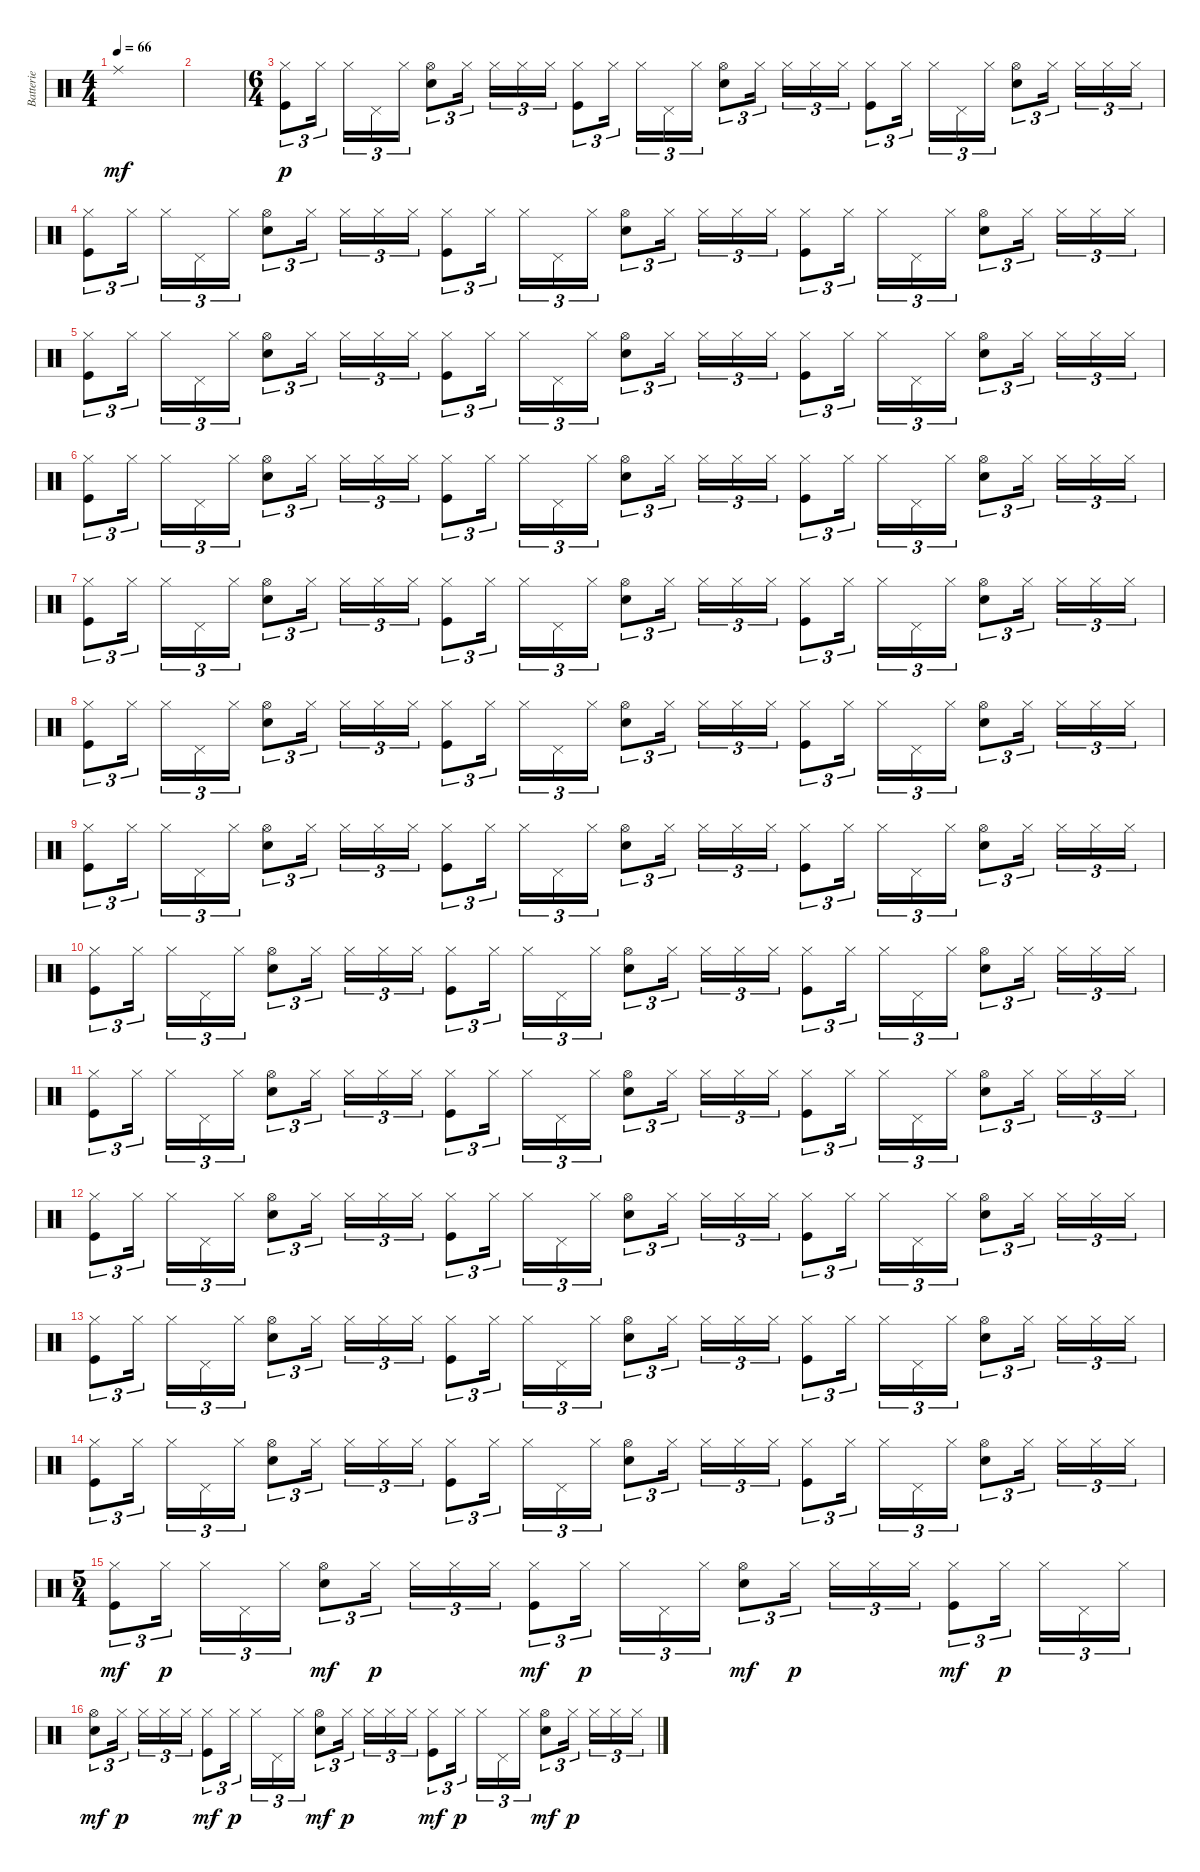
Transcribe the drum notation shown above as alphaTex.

\track ("Batterie" "Batterie") {instrument percussion}
\staff {score}
\articulation defaults
\ts (4 4)
\tempo 66
\clef neutral
\ks c "Ride (middle)".1{dy mf}
|
|
\ts (6 4)
("Hi-Hat (closed)" "Kick (hit)").8{tu (3 2) dy p} "Hi-Hat (closed)".16{tu (3 2)} "Hi-Hat (closed)".16{tu (3 2)} "Pedal Hi-Hat (hit)".16{tu (3 2)} "Hi-Hat (closed)".16{tu (3 2)} ("Hi-Hat (open)" "Snare (hit) 2").8{tu (3 2)} "Hi-Hat (closed)".16{tu (3 2)} "Hi-Hat (closed)".16{tu (3 2)} "Hi-Hat (closed)".16{tu (3 2)} "Hi-Hat (closed)".16{tu (3 2)} ("Hi-Hat (closed)" "Kick (hit)").8{tu (3 2)} "Hi-Hat (closed)".16{tu (3 2)} "Hi-Hat (closed)".16{tu (3 2)} "Pedal Hi-Hat (hit)".16{tu (3 2)} "Hi-Hat (closed)".16{tu (3 2)} ("Hi-Hat (open)" "Snare (hit) 2").8{tu (3 2)} "Hi-Hat (closed)".16{tu (3 2)} "Hi-Hat (closed)".16{tu (3 2)} "Hi-Hat (closed)".16{tu (3 2)} "Hi-Hat (closed)".16{tu (3 2)} ("Hi-Hat (closed)" "Kick (hit)").8{tu (3 2)} "Hi-Hat (closed)".16{tu (3 2)} "Hi-Hat (closed)".16{tu (3 2)} "Pedal Hi-Hat (hit)".16{tu (3 2)} "Hi-Hat (closed)".16{tu (3 2)} ("Hi-Hat (open)" "Snare (hit) 2").8{tu (3 2)} "Hi-Hat (closed)".16{tu (3 2)} "Hi-Hat (closed)".16{tu (3 2)} "Hi-Hat (closed)".16{tu (3 2)} "Hi-Hat (closed)".16{tu (3 2)} |
("Hi-Hat (closed)" "Kick (hit)").8{tu (3 2)} "Hi-Hat (closed)".16{tu (3 2)} "Hi-Hat (closed)".16{tu (3 2)} "Pedal Hi-Hat (hit)".16{tu (3 2)} "Hi-Hat (closed)".16{tu (3 2)} ("Hi-Hat (open)" "Snare (hit) 2").8{tu (3 2)} "Hi-Hat (closed)".16{tu (3 2)} "Hi-Hat (closed)".16{tu (3 2)} "Hi-Hat (closed)".16{tu (3 2)} "Hi-Hat (closed)".16{tu (3 2)} ("Hi-Hat (closed)" "Kick (hit)").8{tu (3 2)} "Hi-Hat (closed)".16{tu (3 2)} "Hi-Hat (closed)".16{tu (3 2)} "Pedal Hi-Hat (hit)".16{tu (3 2)} "Hi-Hat (closed)".16{tu (3 2)} ("Hi-Hat (open)" "Snare (hit) 2").8{tu (3 2)} "Hi-Hat (closed)".16{tu (3 2)} "Hi-Hat (closed)".16{tu (3 2)} "Hi-Hat (closed)".16{tu (3 2)} "Hi-Hat (closed)".16{tu (3 2)} ("Hi-Hat (closed)" "Kick (hit)").8{tu (3 2)} "Hi-Hat (closed)".16{tu (3 2)} "Hi-Hat (closed)".16{tu (3 2)} "Pedal Hi-Hat (hit)".16{tu (3 2)} "Hi-Hat (closed)".16{tu (3 2)} ("Hi-Hat (open)" "Snare (hit) 2").8{tu (3 2)} "Hi-Hat (closed)".16{tu (3 2)} "Hi-Hat (closed)".16{tu (3 2)} "Hi-Hat (closed)".16{tu (3 2)} "Hi-Hat (closed)".16{tu (3 2)} |
("Hi-Hat (closed)" "Kick (hit)").8{tu (3 2)} "Hi-Hat (closed)".16{tu (3 2)} "Hi-Hat (closed)".16{tu (3 2)} "Pedal Hi-Hat (hit)".16{tu (3 2)} "Hi-Hat (closed)".16{tu (3 2)} ("Hi-Hat (open)" "Snare (hit) 2").8{tu (3 2)} "Hi-Hat (closed)".16{tu (3 2)} "Hi-Hat (closed)".16{tu (3 2)} "Hi-Hat (closed)".16{tu (3 2)} "Hi-Hat (closed)".16{tu (3 2)} ("Hi-Hat (closed)" "Kick (hit)").8{tu (3 2)} "Hi-Hat (closed)".16{tu (3 2)} "Hi-Hat (closed)".16{tu (3 2)} "Pedal Hi-Hat (hit)".16{tu (3 2)} "Hi-Hat (closed)".16{tu (3 2)} ("Hi-Hat (open)" "Snare (hit) 2").8{tu (3 2)} "Hi-Hat (closed)".16{tu (3 2)} "Hi-Hat (closed)".16{tu (3 2)} "Hi-Hat (closed)".16{tu (3 2)} "Hi-Hat (closed)".16{tu (3 2)} ("Hi-Hat (closed)" "Kick (hit)").8{tu (3 2)} "Hi-Hat (closed)".16{tu (3 2)} "Hi-Hat (closed)".16{tu (3 2)} "Pedal Hi-Hat (hit)".16{tu (3 2)} "Hi-Hat (closed)".16{tu (3 2)} ("Hi-Hat (open)" "Snare (hit) 2").8{tu (3 2)} "Hi-Hat (closed)".16{tu (3 2)} "Hi-Hat (closed)".16{tu (3 2)} "Hi-Hat (closed)".16{tu (3 2)} "Hi-Hat (closed)".16{tu (3 2)} |
("Hi-Hat (closed)" "Kick (hit)").8{tu (3 2)} "Hi-Hat (closed)".16{tu (3 2)} "Hi-Hat (closed)".16{tu (3 2)} "Pedal Hi-Hat (hit)".16{tu (3 2)} "Hi-Hat (closed)".16{tu (3 2)} ("Hi-Hat (open)" "Snare (hit) 2").8{tu (3 2)} "Hi-Hat (closed)".16{tu (3 2)} "Hi-Hat (closed)".16{tu (3 2)} "Hi-Hat (closed)".16{tu (3 2)} "Hi-Hat (closed)".16{tu (3 2)} ("Hi-Hat (closed)" "Kick (hit)").8{tu (3 2)} "Hi-Hat (closed)".16{tu (3 2)} "Hi-Hat (closed)".16{tu (3 2)} "Pedal Hi-Hat (hit)".16{tu (3 2)} "Hi-Hat (closed)".16{tu (3 2)} ("Hi-Hat (open)" "Snare (hit) 2").8{tu (3 2)} "Hi-Hat (closed)".16{tu (3 2)} "Hi-Hat (closed)".16{tu (3 2)} "Hi-Hat (closed)".16{tu (3 2)} "Hi-Hat (closed)".16{tu (3 2)} ("Hi-Hat (closed)" "Kick (hit)").8{tu (3 2)} "Hi-Hat (closed)".16{tu (3 2)} "Hi-Hat (closed)".16{tu (3 2)} "Pedal Hi-Hat (hit)".16{tu (3 2)} "Hi-Hat (closed)".16{tu (3 2)} ("Hi-Hat (open)" "Snare (hit) 2").8{tu (3 2)} "Hi-Hat (closed)".16{tu (3 2)} "Hi-Hat (closed)".16{tu (3 2)} "Hi-Hat (closed)".16{tu (3 2)} "Hi-Hat (closed)".16{tu (3 2)} |
("Hi-Hat (closed)" "Kick (hit)").8{tu (3 2)} "Hi-Hat (closed)".16{tu (3 2)} "Hi-Hat (closed)".16{tu (3 2)} "Pedal Hi-Hat (hit)".16{tu (3 2)} "Hi-Hat (closed)".16{tu (3 2)} ("Hi-Hat (open)" "Snare (hit) 2").8{tu (3 2)} "Hi-Hat (closed)".16{tu (3 2)} "Hi-Hat (closed)".16{tu (3 2)} "Hi-Hat (closed)".16{tu (3 2)} "Hi-Hat (closed)".16{tu (3 2)} ("Hi-Hat (closed)" "Kick (hit)").8{tu (3 2)} "Hi-Hat (closed)".16{tu (3 2)} "Hi-Hat (closed)".16{tu (3 2)} "Pedal Hi-Hat (hit)".16{tu (3 2)} "Hi-Hat (closed)".16{tu (3 2)} ("Hi-Hat (open)" "Snare (hit) 2").8{tu (3 2)} "Hi-Hat (closed)".16{tu (3 2)} "Hi-Hat (closed)".16{tu (3 2)} "Hi-Hat (closed)".16{tu (3 2)} "Hi-Hat (closed)".16{tu (3 2)} ("Hi-Hat (closed)" "Kick (hit)").8{tu (3 2)} "Hi-Hat (closed)".16{tu (3 2)} "Hi-Hat (closed)".16{tu (3 2)} "Pedal Hi-Hat (hit)".16{tu (3 2)} "Hi-Hat (closed)".16{tu (3 2)} ("Hi-Hat (open)" "Snare (hit) 2").8{tu (3 2)} "Hi-Hat (closed)".16{tu (3 2)} "Hi-Hat (closed)".16{tu (3 2)} "Hi-Hat (closed)".16{tu (3 2)} "Hi-Hat (closed)".16{tu (3 2)} |
("Hi-Hat (closed)" "Kick (hit)").8{tu (3 2)} "Hi-Hat (closed)".16{tu (3 2)} "Hi-Hat (closed)".16{tu (3 2)} "Pedal Hi-Hat (hit)".16{tu (3 2)} "Hi-Hat (closed)".16{tu (3 2)} ("Hi-Hat (open)" "Snare (hit) 2").8{tu (3 2)} "Hi-Hat (closed)".16{tu (3 2)} "Hi-Hat (closed)".16{tu (3 2)} "Hi-Hat (closed)".16{tu (3 2)} "Hi-Hat (closed)".16{tu (3 2)} ("Hi-Hat (closed)" "Kick (hit)").8{tu (3 2)} "Hi-Hat (closed)".16{tu (3 2)} "Hi-Hat (closed)".16{tu (3 2)} "Pedal Hi-Hat (hit)".16{tu (3 2)} "Hi-Hat (closed)".16{tu (3 2)} ("Hi-Hat (open)" "Snare (hit) 2").8{tu (3 2)} "Hi-Hat (closed)".16{tu (3 2)} "Hi-Hat (closed)".16{tu (3 2)} "Hi-Hat (closed)".16{tu (3 2)} "Hi-Hat (closed)".16{tu (3 2)} ("Hi-Hat (closed)" "Kick (hit)").8{tu (3 2)} "Hi-Hat (closed)".16{tu (3 2)} "Hi-Hat (closed)".16{tu (3 2)} "Pedal Hi-Hat (hit)".16{tu (3 2)} "Hi-Hat (closed)".16{tu (3 2)} ("Hi-Hat (open)" "Snare (hit) 2").8{tu (3 2)} "Hi-Hat (closed)".16{tu (3 2)} "Hi-Hat (closed)".16{tu (3 2)} "Hi-Hat (closed)".16{tu (3 2)} "Hi-Hat (closed)".16{tu (3 2)} |
("Hi-Hat (closed)" "Kick (hit)").8{tu (3 2)} "Hi-Hat (closed)".16{tu (3 2)} "Hi-Hat (closed)".16{tu (3 2)} "Pedal Hi-Hat (hit)".16{tu (3 2)} "Hi-Hat (closed)".16{tu (3 2)} ("Hi-Hat (open)" "Snare (hit) 2").8{tu (3 2)} "Hi-Hat (closed)".16{tu (3 2)} "Hi-Hat (closed)".16{tu (3 2)} "Hi-Hat (closed)".16{tu (3 2)} "Hi-Hat (closed)".16{tu (3 2)} ("Hi-Hat (closed)" "Kick (hit)").8{tu (3 2)} "Hi-Hat (closed)".16{tu (3 2)} "Hi-Hat (closed)".16{tu (3 2)} "Pedal Hi-Hat (hit)".16{tu (3 2)} "Hi-Hat (closed)".16{tu (3 2)} ("Hi-Hat (open)" "Snare (hit) 2").8{tu (3 2)} "Hi-Hat (closed)".16{tu (3 2)} "Hi-Hat (closed)".16{tu (3 2)} "Hi-Hat (closed)".16{tu (3 2)} "Hi-Hat (closed)".16{tu (3 2)} ("Hi-Hat (closed)" "Kick (hit)").8{tu (3 2)} "Hi-Hat (closed)".16{tu (3 2)} "Hi-Hat (closed)".16{tu (3 2)} "Pedal Hi-Hat (hit)".16{tu (3 2)} "Hi-Hat (closed)".16{tu (3 2)} ("Hi-Hat (open)" "Snare (hit) 2").8{tu (3 2)} "Hi-Hat (closed)".16{tu (3 2)} "Hi-Hat (closed)".16{tu (3 2)} "Hi-Hat (closed)".16{tu (3 2)} "Hi-Hat (closed)".16{tu (3 2)} |
("Hi-Hat (closed)" "Kick (hit)").8{tu (3 2)} "Hi-Hat (closed)".16{tu (3 2)} "Hi-Hat (closed)".16{tu (3 2)} "Pedal Hi-Hat (hit)".16{tu (3 2)} "Hi-Hat (closed)".16{tu (3 2)} ("Hi-Hat (open)" "Snare (hit) 2").8{tu (3 2)} "Hi-Hat (closed)".16{tu (3 2)} "Hi-Hat (closed)".16{tu (3 2)} "Hi-Hat (closed)".16{tu (3 2)} "Hi-Hat (closed)".16{tu (3 2)} ("Hi-Hat (closed)" "Kick (hit)").8{tu (3 2)} "Hi-Hat (closed)".16{tu (3 2)} "Hi-Hat (closed)".16{tu (3 2)} "Pedal Hi-Hat (hit)".16{tu (3 2)} "Hi-Hat (closed)".16{tu (3 2)} ("Hi-Hat (open)" "Snare (hit) 2").8{tu (3 2)} "Hi-Hat (closed)".16{tu (3 2)} "Hi-Hat (closed)".16{tu (3 2)} "Hi-Hat (closed)".16{tu (3 2)} "Hi-Hat (closed)".16{tu (3 2)} ("Hi-Hat (closed)" "Kick (hit)").8{tu (3 2)} "Hi-Hat (closed)".16{tu (3 2)} "Hi-Hat (closed)".16{tu (3 2)} "Pedal Hi-Hat (hit)".16{tu (3 2)} "Hi-Hat (closed)".16{tu (3 2)} ("Hi-Hat (open)" "Snare (hit) 2").8{tu (3 2)} "Hi-Hat (closed)".16{tu (3 2)} "Hi-Hat (closed)".16{tu (3 2)} "Hi-Hat (closed)".16{tu (3 2)} "Hi-Hat (closed)".16{tu (3 2)} |
("Hi-Hat (closed)" "Kick (hit)").8{tu (3 2)} "Hi-Hat (closed)".16{tu (3 2)} "Hi-Hat (closed)".16{tu (3 2)} "Pedal Hi-Hat (hit)".16{tu (3 2)} "Hi-Hat (closed)".16{tu (3 2)} ("Hi-Hat (open)" "Snare (hit) 2").8{tu (3 2)} "Hi-Hat (closed)".16{tu (3 2)} "Hi-Hat (closed)".16{tu (3 2)} "Hi-Hat (closed)".16{tu (3 2)} "Hi-Hat (closed)".16{tu (3 2)} ("Hi-Hat (closed)" "Kick (hit)").8{tu (3 2)} "Hi-Hat (closed)".16{tu (3 2)} "Hi-Hat (closed)".16{tu (3 2)} "Pedal Hi-Hat (hit)".16{tu (3 2)} "Hi-Hat (closed)".16{tu (3 2)} ("Hi-Hat (open)" "Snare (hit) 2").8{tu (3 2)} "Hi-Hat (closed)".16{tu (3 2)} "Hi-Hat (closed)".16{tu (3 2)} "Hi-Hat (closed)".16{tu (3 2)} "Hi-Hat (closed)".16{tu (3 2)} ("Hi-Hat (closed)" "Kick (hit)").8{tu (3 2)} "Hi-Hat (closed)".16{tu (3 2)} "Hi-Hat (closed)".16{tu (3 2)} "Pedal Hi-Hat (hit)".16{tu (3 2)} "Hi-Hat (closed)".16{tu (3 2)} ("Hi-Hat (open)" "Snare (hit) 2").8{tu (3 2)} "Hi-Hat (closed)".16{tu (3 2)} "Hi-Hat (closed)".16{tu (3 2)} "Hi-Hat (closed)".16{tu (3 2)} "Hi-Hat (closed)".16{tu (3 2)} |
("Hi-Hat (closed)" "Kick (hit)").8{tu (3 2)} "Hi-Hat (closed)".16{tu (3 2)} "Hi-Hat (closed)".16{tu (3 2)} "Pedal Hi-Hat (hit)".16{tu (3 2)} "Hi-Hat (closed)".16{tu (3 2)} ("Hi-Hat (open)" "Snare (hit) 2").8{tu (3 2)} "Hi-Hat (closed)".16{tu (3 2)} "Hi-Hat (closed)".16{tu (3 2)} "Hi-Hat (closed)".16{tu (3 2)} "Hi-Hat (closed)".16{tu (3 2)} ("Hi-Hat (closed)" "Kick (hit)").8{tu (3 2)} "Hi-Hat (closed)".16{tu (3 2)} "Hi-Hat (closed)".16{tu (3 2)} "Pedal Hi-Hat (hit)".16{tu (3 2)} "Hi-Hat (closed)".16{tu (3 2)} ("Hi-Hat (open)" "Snare (hit) 2").8{tu (3 2)} "Hi-Hat (closed)".16{tu (3 2)} "Hi-Hat (closed)".16{tu (3 2)} "Hi-Hat (closed)".16{tu (3 2)} "Hi-Hat (closed)".16{tu (3 2)} ("Hi-Hat (closed)" "Kick (hit)").8{tu (3 2)} "Hi-Hat (closed)".16{tu (3 2)} "Hi-Hat (closed)".16{tu (3 2)} "Pedal Hi-Hat (hit)".16{tu (3 2)} "Hi-Hat (closed)".16{tu (3 2)} ("Hi-Hat (open)" "Snare (hit) 2").8{tu (3 2)} "Hi-Hat (closed)".16{tu (3 2)} "Hi-Hat (closed)".16{tu (3 2)} "Hi-Hat (closed)".16{tu (3 2)} "Hi-Hat (closed)".16{tu (3 2)} |
("Hi-Hat (closed)" "Kick (hit)").8{tu (3 2)} "Hi-Hat (closed)".16{tu (3 2)} "Hi-Hat (closed)".16{tu (3 2)} "Pedal Hi-Hat (hit)".16{tu (3 2)} "Hi-Hat (closed)".16{tu (3 2)} ("Hi-Hat (open)" "Snare (hit) 2").8{tu (3 2)} "Hi-Hat (closed)".16{tu (3 2)} "Hi-Hat (closed)".16{tu (3 2)} "Hi-Hat (closed)".16{tu (3 2)} "Hi-Hat (closed)".16{tu (3 2)} ("Hi-Hat (closed)" "Kick (hit)").8{tu (3 2)} "Hi-Hat (closed)".16{tu (3 2)} "Hi-Hat (closed)".16{tu (3 2)} "Pedal Hi-Hat (hit)".16{tu (3 2)} "Hi-Hat (closed)".16{tu (3 2)} ("Hi-Hat (open)" "Snare (hit) 2").8{tu (3 2)} "Hi-Hat (closed)".16{tu (3 2)} "Hi-Hat (closed)".16{tu (3 2)} "Hi-Hat (closed)".16{tu (3 2)} "Hi-Hat (closed)".16{tu (3 2)} ("Hi-Hat (closed)" "Kick (hit)").8{tu (3 2)} "Hi-Hat (closed)".16{tu (3 2)} "Hi-Hat (closed)".16{tu (3 2)} "Pedal Hi-Hat (hit)".16{tu (3 2)} "Hi-Hat (closed)".16{tu (3 2)} ("Hi-Hat (open)" "Snare (hit) 2").8{tu (3 2)} "Hi-Hat (closed)".16{tu (3 2)} "Hi-Hat (closed)".16{tu (3 2)} "Hi-Hat (closed)".16{tu (3 2)} "Hi-Hat (closed)".16{tu (3 2)} |
("Hi-Hat (closed)" "Kick (hit)").8{tu (3 2)} "Hi-Hat (closed)".16{tu (3 2)} "Hi-Hat (closed)".16{tu (3 2)} "Pedal Hi-Hat (hit)".16{tu (3 2)} "Hi-Hat (closed)".16{tu (3 2)} ("Hi-Hat (open)" "Snare (hit) 2").8{tu (3 2)} "Hi-Hat (closed)".16{tu (3 2)} "Hi-Hat (closed)".16{tu (3 2)} "Hi-Hat (closed)".16{tu (3 2)} "Hi-Hat (closed)".16{tu (3 2)} ("Hi-Hat (closed)" "Kick (hit)").8{tu (3 2)} "Hi-Hat (closed)".16{tu (3 2)} "Hi-Hat (closed)".16{tu (3 2)} "Pedal Hi-Hat (hit)".16{tu (3 2)} "Hi-Hat (closed)".16{tu (3 2)} ("Hi-Hat (open)" "Snare (hit) 2").8{tu (3 2)} "Hi-Hat (closed)".16{tu (3 2)} "Hi-Hat (closed)".16{tu (3 2)} "Hi-Hat (closed)".16{tu (3 2)} "Hi-Hat (closed)".16{tu (3 2)} ("Hi-Hat (closed)" "Kick (hit)").8{tu (3 2)} "Hi-Hat (closed)".16{tu (3 2)} "Hi-Hat (closed)".16{tu (3 2)} "Pedal Hi-Hat (hit)".16{tu (3 2)} "Hi-Hat (closed)".16{tu (3 2)} ("Hi-Hat (open)" "Snare (hit) 2").8{tu (3 2)} "Hi-Hat (closed)".16{tu (3 2)} "Hi-Hat (closed)".16{tu (3 2)} "Hi-Hat (closed)".16{tu (3 2)} "Hi-Hat (closed)".16{tu (3 2)} |
\ts (5 4)
("Hi-Hat (closed)" "Kick (hit)").8{tu (3 2) dy mf} "Hi-Hat (closed)".16{tu (3 2) dy p} "Hi-Hat (closed)".16{tu (3 2)} "Pedal Hi-Hat (hit)".16{tu (3 2)} "Hi-Hat (closed)".16{tu (3 2)} ("Hi-Hat (open)" "Snare (hit) 2").8{tu (3 2) dy mf} "Hi-Hat (closed)".16{tu (3 2) dy p} "Hi-Hat (closed)".16{tu (3 2)} "Hi-Hat (closed)".16{tu (3 2)} "Hi-Hat (closed)".16{tu (3 2)} ("Hi-Hat (closed)" "Kick (hit)").8{tu (3 2) dy mf} "Hi-Hat (closed)".16{tu (3 2) dy p} "Hi-Hat (closed)".16{tu (3 2)} "Pedal Hi-Hat (hit)".16{tu (3 2)} "Hi-Hat (closed)".16{tu (3 2)} ("Hi-Hat (open)" "Snare (hit) 2").8{tu (3 2) dy mf} "Hi-Hat (closed)".16{tu (3 2) dy p} "Hi-Hat (closed)".16{tu (3 2)} "Hi-Hat (closed)".16{tu (3 2)} "Hi-Hat (closed)".16{tu (3 2)} ("Hi-Hat (closed)" "Kick (hit)").8{tu (3 2) dy mf} "Hi-Hat (closed)".16{tu (3 2) dy p} "Hi-Hat (closed)".16{tu (3 2)} "Pedal Hi-Hat (hit)".16{tu (3 2)} "Hi-Hat (closed)".16{tu (3 2)} |
("Hi-Hat (open)" "Snare (hit) 2").8{tu (3 2) dy mf} "Hi-Hat (closed)".16{tu (3 2) dy p} "Hi-Hat (closed)".16{tu (3 2)} "Hi-Hat (closed)".16{tu (3 2)} "Hi-Hat (closed)".16{tu (3 2)} ("Hi-Hat (closed)" "Kick (hit)").8{tu (3 2) dy mf} "Hi-Hat (closed)".16{tu (3 2) dy p} "Hi-Hat (closed)".16{tu (3 2)} "Pedal Hi-Hat (hit)".16{tu (3 2)} "Hi-Hat (closed)".16{tu (3 2)} ("Hi-Hat (open)" "Snare (hit) 2").8{tu (3 2) dy mf} "Hi-Hat (closed)".16{tu (3 2) dy p} "Hi-Hat (closed)".16{tu (3 2)} "Hi-Hat (closed)".16{tu (3 2)} "Hi-Hat (closed)".16{tu (3 2)} ("Hi-Hat (closed)" "Kick (hit)").8{tu (3 2) dy mf} "Hi-Hat (closed)".16{tu (3 2) dy p} "Hi-Hat (closed)".16{tu (3 2)} "Pedal Hi-Hat (hit)".16{tu (3 2)} "Hi-Hat (closed)".16{tu (3 2)} ("Hi-Hat (open)" "Snare (hit) 2").8{tu (3 2) dy mf} "Hi-Hat (closed)".16{tu (3 2) dy p} "Hi-Hat (closed)".16{tu (3 2)} "Hi-Hat (closed)".16{tu (3 2)} "Hi-Hat (closed)".16{tu (3 2)}
